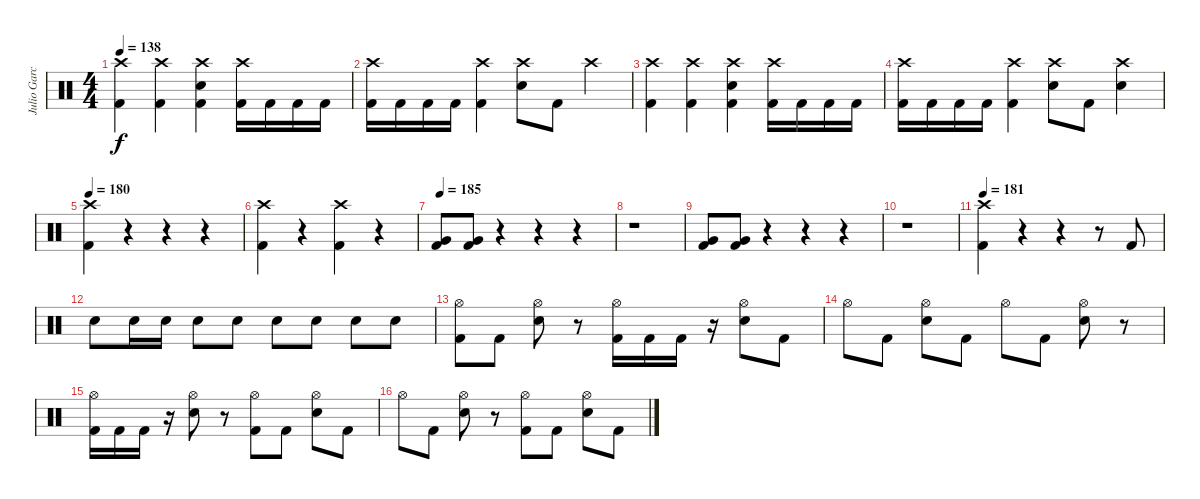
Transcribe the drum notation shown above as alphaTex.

\track ("Julio Garcia" "Julio Garc") {instrument percussion}
\staff {score}
\articulation defaults
\ts (4 4)
\tempo 138
\clef neutral
\ks c
("Crash high (hit)" "Kick (hit) 2").4{dy f} ("Crash high (hit)" "Kick (hit) 2").4 ("Crash high (hit)" "Electric Snare (hit)" "Kick (hit) 2").4 ("Crash high (hit)" "Kick (hit) 2").16 "Kick (hit) 2".16 "Kick (hit) 2".16 "Kick (hit) 2".16 |
("Crash high (hit)" "Kick (hit) 2").16 "Kick (hit) 2".16 "Kick (hit) 2".16 "Kick (hit) 2".16 ("Crash high (hit)" "Kick (hit) 2").4 ("Crash high (hit)" "Electric Snare (hit)").8 "Kick (hit) 2".8 "Crash high (hit)".4 |
("Crash high (hit)" "Kick (hit) 2").4 ("Crash high (hit)" "Kick (hit) 2").4 ("Crash high (hit)" "Electric Snare (hit)" "Kick (hit) 2").4 ("Crash high (hit)" "Kick (hit) 2").16 "Kick (hit) 2".16 "Kick (hit) 2".16 "Kick (hit) 2".16 |
("Crash high (hit)" "Kick (hit) 2").16 "Kick (hit) 2".16 "Kick (hit) 2".16 "Kick (hit) 2".16 ("Crash high (hit)" "Kick (hit) 2").4 ("Crash high (hit)" "Electric Snare (hit)").8 "Kick (hit) 2".8 ("Crash high (hit)" "Electric Snare (hit)").4 |
\tempo 180
("Crash high (hit)" "Kick (hit) 2").4 r.4 r.4 r.4 |
("Crash high (hit)" "Kick (hit) 2").4 r.4 ("Crash high (hit)" "Kick (hit) 2").4 r.4 |
\tempo 185
("Very Low Tom (hit)" "Kick (hit) 2").8 ("Very Low Tom (hit)" "Kick (hit) 2").8 r.4 r.4 r.4 |
r.1 |
("Very Low Tom (hit)" "Kick (hit) 2").8 ("Very Low Tom (hit)" "Kick (hit) 2").8 r.4 r.4 r.4 |
r.1 |
\tempo 181
("Crash high (hit)" "Kick (hit) 2").4 r.4 r.4 r.8 "Kick (hit) 2".8 |
"Electric Snare (hit)".8 "Electric Snare (hit)".16 "Electric Snare (hit)".16 "Electric Snare (hit)".8 "Electric Snare (hit)".8 "Electric Snare (hit)".8 "Electric Snare (hit)".8 "Electric Snare (hit)".8 "Electric Snare (hit)".8 |
("Hi-Hat (open)" "Kick (hit) 2").8 "Kick (hit) 2".8 ("Hi-Hat (open)" "Electric Snare (hit)").8 r.8 ("Hi-Hat (open)" "Kick (hit) 2").16 "Kick (hit) 2".16 "Kick (hit) 2".16 r.16 ("Hi-Hat (open)" "Electric Snare (hit)").8 "Kick (hit) 2".8 |
"Hi-Hat (open)".8 "Kick (hit) 2".8 ("Hi-Hat (open)" "Electric Snare (hit)").8 "Kick (hit) 2".8 "Hi-Hat (open)".8 "Kick (hit) 2".8 ("Hi-Hat (open)" "Electric Snare (hit)").8 r.8 |
("Hi-Hat (open)" "Kick (hit) 2").16 "Kick (hit) 2".16 "Kick (hit) 2".16 r.16 ("Hi-Hat (open)" "Electric Snare (hit)").8 r.8 ("Hi-Hat (open)" "Kick (hit) 2").8 "Kick (hit) 2".8 ("Hi-Hat (open)" "Electric Snare (hit)").8 "Kick (hit) 2".8 |
"Hi-Hat (open)".8 "Kick (hit) 2".8 ("Hi-Hat (open)" "Electric Snare (hit)").8 r.8 ("Hi-Hat (open)" "Kick (hit) 2").8 "Kick (hit) 2".8 ("Hi-Hat (open)" "Electric Snare (hit)").8 "Kick (hit) 2".8
